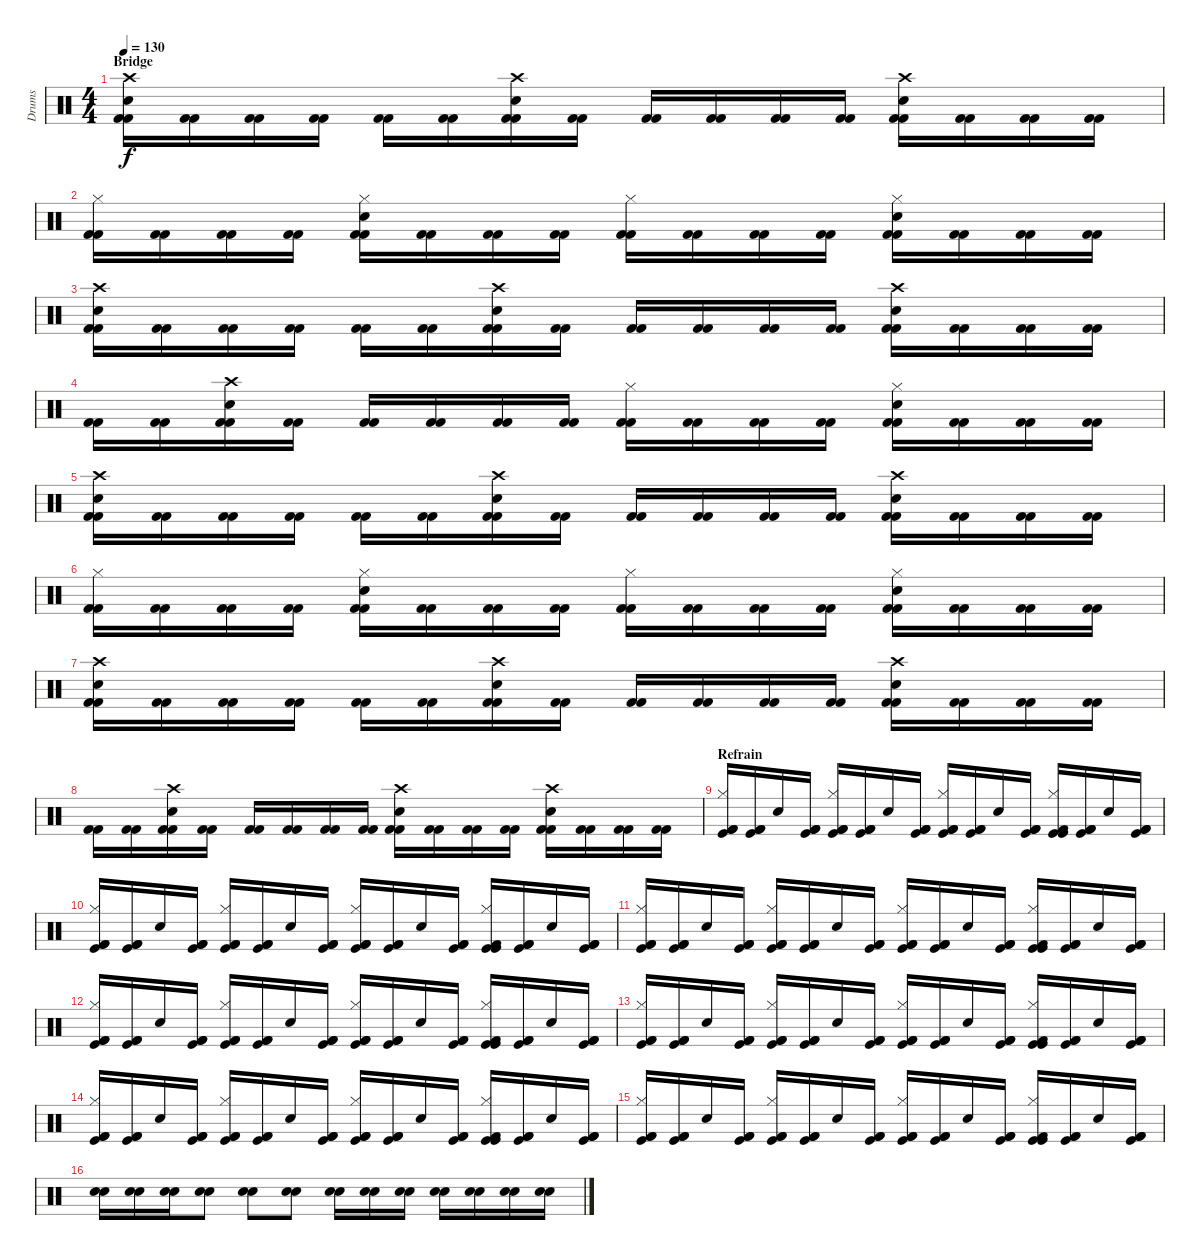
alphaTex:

\track ("Drums" "Drums") {instrument percussion}
\staff {score}
\articulation defaults
\ts (4 4)
\section ("" "Bridge")
\tempo 130
\clef neutral
\ks c
("Crash high (hit)" "Electric Snare (hit)" "Kick (hit) 2" "Kick (hit) 2").16{dy f} ("Kick (hit) 2" "Kick (hit) 2").16 ("Kick (hit) 2" "Kick (hit) 2").16 ("Kick (hit) 2" "Kick (hit) 2").16 ("Kick (hit) 2" "Kick (hit) 2").16 ("Kick (hit) 2" "Kick (hit) 2").16 ("Crash high (hit)" "Electric Snare (hit)" "Kick (hit) 2" "Kick (hit) 2").16 ("Kick (hit) 2" "Kick (hit) 2").16 ("Kick (hit) 2" "Kick (hit) 2").16 ("Kick (hit) 2" "Kick (hit) 2").16 ("Kick (hit) 2" "Kick (hit) 2").16 ("Kick (hit) 2" "Kick (hit) 2").16 ("Crash high (hit)" "Electric Snare (hit)" "Kick (hit) 2" "Kick (hit) 2").16 ("Kick (hit) 2" "Kick (hit) 2").16 ("Kick (hit) 2" "Kick (hit) 2").16 ("Kick (hit) 2" "Kick (hit) 2").16 |
("Hi-Hat (closed)" "Kick (hit) 2" "Kick (hit) 2").16 ("Kick (hit) 2" "Kick (hit) 2").16 ("Kick (hit) 2" "Kick (hit) 2").16 ("Kick (hit) 2" "Kick (hit) 2").16 ("Hi-Hat (closed)" "Electric Snare (hit)" "Kick (hit) 2" "Kick (hit) 2").16 ("Kick (hit) 2" "Kick (hit) 2").16 ("Kick (hit) 2" "Kick (hit) 2").16 ("Kick (hit) 2" "Kick (hit) 2").16 ("Hi-Hat (closed)" "Kick (hit) 2" "Kick (hit) 2").16 ("Kick (hit) 2" "Kick (hit) 2").16 ("Kick (hit) 2" "Kick (hit) 2").16 ("Kick (hit) 2" "Kick (hit) 2").16 ("Hi-Hat (closed)" "Electric Snare (hit)" "Kick (hit) 2" "Kick (hit) 2").16 ("Kick (hit) 2" "Kick (hit) 2").16 ("Kick (hit) 2" "Kick (hit) 2").16 ("Kick (hit) 2" "Kick (hit) 2").16 |
("Crash high (hit)" "Electric Snare (hit)" "Kick (hit) 2" "Kick (hit) 2").16 ("Kick (hit) 2" "Kick (hit) 2").16 ("Kick (hit) 2" "Kick (hit) 2").16 ("Kick (hit) 2" "Kick (hit) 2").16 ("Kick (hit) 2" "Kick (hit) 2").16 ("Kick (hit) 2" "Kick (hit) 2").16 ("Crash high (hit)" "Electric Snare (hit)" "Kick (hit) 2" "Kick (hit) 2").16 ("Kick (hit) 2" "Kick (hit) 2").16 ("Kick (hit) 2" "Kick (hit) 2").16 ("Kick (hit) 2" "Kick (hit) 2").16 ("Kick (hit) 2" "Kick (hit) 2").16 ("Kick (hit) 2" "Kick (hit) 2").16 ("Crash high (hit)" "Electric Snare (hit)" "Kick (hit) 2" "Kick (hit) 2").16 ("Kick (hit) 2" "Kick (hit) 2").16 ("Kick (hit) 2" "Kick (hit) 2").16 ("Kick (hit) 2" "Kick (hit) 2").16 |
("Kick (hit) 2" "Kick (hit) 2").16 ("Kick (hit) 2" "Kick (hit) 2").16 ("Crash high (hit)" "Electric Snare (hit)" "Kick (hit) 2" "Kick (hit) 2").16 ("Kick (hit) 2" "Kick (hit) 2").16 ("Kick (hit) 2" "Kick (hit) 2").16 ("Kick (hit) 2" "Kick (hit) 2").16 ("Kick (hit) 2" "Kick (hit) 2").16 ("Kick (hit) 2" "Kick (hit) 2").16 ("Hi-Hat (closed)" "Kick (hit) 2" "Kick (hit) 2").16 ("Kick (hit) 2" "Kick (hit) 2").16 ("Kick (hit) 2" "Kick (hit) 2").16 ("Kick (hit) 2" "Kick (hit) 2").16 ("Hi-Hat (closed)" "Electric Snare (hit)" "Kick (hit) 2" "Kick (hit) 2").16 ("Kick (hit) 2" "Kick (hit) 2").16 ("Kick (hit) 2" "Kick (hit) 2").16 ("Kick (hit) 2" "Kick (hit) 2").16 |
("Crash high (hit)" "Electric Snare (hit)" "Kick (hit) 2" "Kick (hit) 2").16 ("Kick (hit) 2" "Kick (hit) 2").16 ("Kick (hit) 2" "Kick (hit) 2").16 ("Kick (hit) 2" "Kick (hit) 2").16 ("Kick (hit) 2" "Kick (hit) 2").16 ("Kick (hit) 2" "Kick (hit) 2").16 ("Crash high (hit)" "Electric Snare (hit)" "Kick (hit) 2" "Kick (hit) 2").16 ("Kick (hit) 2" "Kick (hit) 2").16 ("Kick (hit) 2" "Kick (hit) 2").16 ("Kick (hit) 2" "Kick (hit) 2").16 ("Kick (hit) 2" "Kick (hit) 2").16 ("Kick (hit) 2" "Kick (hit) 2").16 ("Crash high (hit)" "Electric Snare (hit)" "Kick (hit) 2" "Kick (hit) 2").16 ("Kick (hit) 2" "Kick (hit) 2").16 ("Kick (hit) 2" "Kick (hit) 2").16 ("Kick (hit) 2" "Kick (hit) 2").16 |
("Hi-Hat (closed)" "Kick (hit) 2" "Kick (hit) 2").16 ("Kick (hit) 2" "Kick (hit) 2").16 ("Kick (hit) 2" "Kick (hit) 2").16 ("Kick (hit) 2" "Kick (hit) 2").16 ("Hi-Hat (closed)" "Electric Snare (hit)" "Kick (hit) 2" "Kick (hit) 2").16 ("Kick (hit) 2" "Kick (hit) 2").16 ("Kick (hit) 2" "Kick (hit) 2").16 ("Kick (hit) 2" "Kick (hit) 2").16 ("Hi-Hat (closed)" "Kick (hit) 2" "Kick (hit) 2").16 ("Kick (hit) 2" "Kick (hit) 2").16 ("Kick (hit) 2" "Kick (hit) 2").16 ("Kick (hit) 2" "Kick (hit) 2").16 ("Hi-Hat (closed)" "Electric Snare (hit)" "Kick (hit) 2" "Kick (hit) 2").16 ("Kick (hit) 2" "Kick (hit) 2").16 ("Kick (hit) 2" "Kick (hit) 2").16 ("Kick (hit) 2" "Kick (hit) 2").16 |
("Crash high (hit)" "Electric Snare (hit)" "Kick (hit) 2" "Kick (hit) 2").16 ("Kick (hit) 2" "Kick (hit) 2").16 ("Kick (hit) 2" "Kick (hit) 2").16 ("Kick (hit) 2" "Kick (hit) 2").16 ("Kick (hit) 2" "Kick (hit) 2").16 ("Kick (hit) 2" "Kick (hit) 2").16 ("Crash high (hit)" "Electric Snare (hit)" "Kick (hit) 2" "Kick (hit) 2").16 ("Kick (hit) 2" "Kick (hit) 2").16 ("Kick (hit) 2" "Kick (hit) 2").16 ("Kick (hit) 2" "Kick (hit) 2").16 ("Kick (hit) 2" "Kick (hit) 2").16 ("Kick (hit) 2" "Kick (hit) 2").16 ("Crash high (hit)" "Electric Snare (hit)" "Kick (hit) 2" "Kick (hit) 2").16 ("Kick (hit) 2" "Kick (hit) 2").16 ("Kick (hit) 2" "Kick (hit) 2").16 ("Kick (hit) 2" "Kick (hit) 2").16 |
("Kick (hit) 2" "Kick (hit) 2").16 ("Kick (hit) 2" "Kick (hit) 2").16 ("Crash high (hit)" "Electric Snare (hit)" "Kick (hit) 2" "Kick (hit) 2").16 ("Kick (hit) 2" "Kick (hit) 2").16 ("Kick (hit) 2" "Kick (hit) 2").16 ("Kick (hit) 2" "Kick (hit) 2").16 ("Kick (hit) 2" "Kick (hit) 2").16 ("Kick (hit) 2" "Kick (hit) 2").16 ("Crash high (hit)" "Electric Snare (hit)" "Kick (hit) 2" "Kick (hit) 2").16 ("Kick (hit) 2" "Kick (hit) 2").16 ("Kick (hit) 2" "Kick (hit) 2").16 ("Kick (hit) 2" "Kick (hit) 2").16 ("Crash high (hit)" "Electric Snare (hit)" "Kick (hit) 2" "Kick (hit) 2").16 ("Kick (hit) 2" "Kick (hit) 2").16 ("Kick (hit) 2" "Kick (hit) 2").16 ("Kick (hit) 2" "Kick (hit) 2").16 |
\section ("" "Refrain")
("Hi-Hat (closed)" "Kick (hit)" "Kick (hit) 2" "Kick (hit) 2").16 ("Kick (hit)" "Kick (hit) 2" "Kick (hit) 2").16 "Electric Snare (hit)".16 ("Kick (hit)" "Kick (hit) 2" "Kick (hit) 2").16 ("Hi-Hat (closed)" "Kick (hit)" "Kick (hit) 2" "Kick (hit) 2").16 ("Kick (hit)" "Kick (hit) 2" "Kick (hit) 2").16 "Electric Snare (hit)".16 ("Kick (hit)" "Kick (hit) 2" "Kick (hit) 2").16 ("Hi-Hat (closed)" "Kick (hit)" "Kick (hit) 2" "Kick (hit) 2").16 ("Kick (hit)" "Kick (hit) 2" "Kick (hit) 2").16 "Electric Snare (hit)".16 ("Kick (hit)" "Kick (hit) 2" "Kick (hit) 2").16 ("Hi-Hat (closed)" "Kick (hit)" "Kick (hit)" "Kick (hit) 2").16 ("Kick (hit)" "Kick (hit) 2" "Kick (hit) 2").16 "Electric Snare (hit)".16 ("Kick (hit)" "Kick (hit) 2" "Kick (hit) 2").16 |
("Hi-Hat (closed)" "Kick (hit)" "Kick (hit) 2" "Kick (hit) 2").16 ("Kick (hit)" "Kick (hit) 2" "Kick (hit) 2").16 "Electric Snare (hit)".16 ("Kick (hit)" "Kick (hit) 2" "Kick (hit) 2").16 ("Hi-Hat (closed)" "Kick (hit)" "Kick (hit) 2" "Kick (hit) 2").16 ("Kick (hit)" "Kick (hit) 2" "Kick (hit) 2").16 "Electric Snare (hit)".16 ("Kick (hit)" "Kick (hit) 2" "Kick (hit) 2").16 ("Hi-Hat (closed)" "Kick (hit)" "Kick (hit) 2" "Kick (hit) 2").16 ("Kick (hit)" "Kick (hit) 2" "Kick (hit) 2").16 "Electric Snare (hit)".16 ("Kick (hit)" "Kick (hit) 2" "Kick (hit) 2").16 ("Hi-Hat (closed)" "Kick (hit)" "Kick (hit)" "Kick (hit) 2").16 ("Kick (hit)" "Kick (hit) 2" "Kick (hit) 2").16 "Electric Snare (hit)".16 ("Kick (hit)" "Kick (hit) 2" "Kick (hit) 2").16 |
("Hi-Hat (closed)" "Kick (hit)" "Kick (hit) 2" "Kick (hit) 2").16 ("Kick (hit)" "Kick (hit) 2" "Kick (hit) 2").16 "Electric Snare (hit)".16 ("Kick (hit)" "Kick (hit) 2" "Kick (hit) 2").16 ("Hi-Hat (closed)" "Kick (hit)" "Kick (hit) 2" "Kick (hit) 2").16 ("Kick (hit)" "Kick (hit) 2" "Kick (hit) 2").16 "Electric Snare (hit)".16 ("Kick (hit)" "Kick (hit) 2" "Kick (hit) 2").16 ("Hi-Hat (closed)" "Kick (hit)" "Kick (hit) 2" "Kick (hit) 2").16 ("Kick (hit)" "Kick (hit) 2" "Kick (hit) 2").16 "Electric Snare (hit)".16 ("Kick (hit)" "Kick (hit) 2" "Kick (hit) 2").16 ("Hi-Hat (closed)" "Kick (hit)" "Kick (hit)" "Kick (hit) 2").16 ("Kick (hit)" "Kick (hit) 2" "Kick (hit) 2").16 "Electric Snare (hit)".16 ("Kick (hit)" "Kick (hit) 2" "Kick (hit) 2").16 |
("Hi-Hat (closed)" "Kick (hit)" "Kick (hit) 2" "Kick (hit) 2").16 ("Kick (hit)" "Kick (hit) 2" "Kick (hit) 2").16 "Electric Snare (hit)".16 ("Kick (hit)" "Kick (hit) 2" "Kick (hit) 2").16 ("Hi-Hat (closed)" "Kick (hit)" "Kick (hit) 2" "Kick (hit) 2").16 ("Kick (hit)" "Kick (hit) 2" "Kick (hit) 2").16 "Electric Snare (hit)".16 ("Kick (hit)" "Kick (hit) 2" "Kick (hit) 2").16 ("Hi-Hat (closed)" "Kick (hit)" "Kick (hit) 2" "Kick (hit) 2").16 ("Kick (hit)" "Kick (hit) 2" "Kick (hit) 2").16 "Electric Snare (hit)".16 ("Kick (hit)" "Kick (hit) 2" "Kick (hit) 2").16 ("Hi-Hat (closed)" "Kick (hit)" "Kick (hit)" "Kick (hit) 2").16 ("Kick (hit)" "Kick (hit) 2" "Kick (hit) 2").16 "Electric Snare (hit)".16 ("Kick (hit)" "Kick (hit) 2" "Kick (hit) 2").16 |
("Hi-Hat (closed)" "Kick (hit)" "Kick (hit) 2" "Kick (hit) 2").16 ("Kick (hit)" "Kick (hit) 2" "Kick (hit) 2").16 "Electric Snare (hit)".16 ("Kick (hit)" "Kick (hit) 2" "Kick (hit) 2").16 ("Hi-Hat (closed)" "Kick (hit)" "Kick (hit) 2" "Kick (hit) 2").16 ("Kick (hit)" "Kick (hit) 2" "Kick (hit) 2").16 "Electric Snare (hit)".16 ("Kick (hit)" "Kick (hit) 2" "Kick (hit) 2").16 ("Hi-Hat (closed)" "Kick (hit)" "Kick (hit) 2" "Kick (hit) 2").16 ("Kick (hit)" "Kick (hit) 2" "Kick (hit) 2").16 "Electric Snare (hit)".16 ("Kick (hit)" "Kick (hit) 2" "Kick (hit) 2").16 ("Hi-Hat (closed)" "Kick (hit)" "Kick (hit)" "Kick (hit) 2").16 ("Kick (hit)" "Kick (hit) 2" "Kick (hit) 2").16 "Electric Snare (hit)".16 ("Kick (hit)" "Kick (hit) 2" "Kick (hit) 2").16 |
("Hi-Hat (closed)" "Kick (hit)" "Kick (hit) 2" "Kick (hit) 2").16 ("Kick (hit)" "Kick (hit) 2" "Kick (hit) 2").16 "Electric Snare (hit)".16 ("Kick (hit)" "Kick (hit) 2" "Kick (hit) 2").16 ("Hi-Hat (closed)" "Kick (hit)" "Kick (hit) 2" "Kick (hit) 2").16 ("Kick (hit)" "Kick (hit) 2" "Kick (hit) 2").16 "Electric Snare (hit)".16 ("Kick (hit)" "Kick (hit) 2" "Kick (hit) 2").16 ("Hi-Hat (closed)" "Kick (hit)" "Kick (hit) 2" "Kick (hit) 2").16 ("Kick (hit)" "Kick (hit) 2" "Kick (hit) 2").16 "Electric Snare (hit)".16 ("Kick (hit)" "Kick (hit) 2" "Kick (hit) 2").16 ("Hi-Hat (closed)" "Kick (hit)" "Kick (hit)" "Kick (hit) 2").16 ("Kick (hit)" "Kick (hit) 2" "Kick (hit) 2").16 "Electric Snare (hit)".16 ("Kick (hit)" "Kick (hit) 2" "Kick (hit) 2").16 |
("Hi-Hat (closed)" "Kick (hit)" "Kick (hit) 2" "Kick (hit) 2").16 ("Kick (hit)" "Kick (hit) 2" "Kick (hit) 2").16 "Electric Snare (hit)".16 ("Kick (hit)" "Kick (hit) 2" "Kick (hit) 2").16 ("Hi-Hat (closed)" "Kick (hit)" "Kick (hit) 2" "Kick (hit) 2").16 ("Kick (hit)" "Kick (hit) 2" "Kick (hit) 2").16 "Electric Snare (hit)".16 ("Kick (hit)" "Kick (hit) 2" "Kick (hit) 2").16 ("Hi-Hat (closed)" "Kick (hit)" "Kick (hit) 2" "Kick (hit) 2").16 ("Kick (hit)" "Kick (hit) 2" "Kick (hit) 2").16 "Electric Snare (hit)".16 ("Kick (hit)" "Kick (hit) 2" "Kick (hit) 2").16 ("Hi-Hat (closed)" "Kick (hit)" "Kick (hit)" "Kick (hit) 2").16 ("Kick (hit)" "Kick (hit) 2" "Kick (hit) 2").16 "Electric Snare (hit)".16 ("Kick (hit)" "Kick (hit) 2" "Kick (hit) 2").16 |
("Electric Snare (hit)" "Electric Snare (hit)").16 ("Electric Snare (hit)" "Electric Snare (hit)").16 ("Electric Snare (hit)" "Electric Snare (hit)").16 ("Electric Snare (hit)" "Electric Snare (hit)").8 ("Electric Snare (hit)" "Electric Snare (hit)").8 ("Electric Snare (hit)" "Electric Snare (hit)").8 ("Electric Snare (hit)" "Electric Snare (hit)").16 ("Electric Snare (hit)" "Electric Snare (hit)").16 ("Electric Snare (hit)" "Electric Snare (hit)").16 ("Electric Snare (hit)" "Electric Snare (hit)").16 ("Electric Snare (hit)" "Electric Snare (hit)").16 ("Electric Snare (hit)" "Electric Snare (hit)").16 ("Electric Snare (hit)" "Electric Snare (hit)").16
